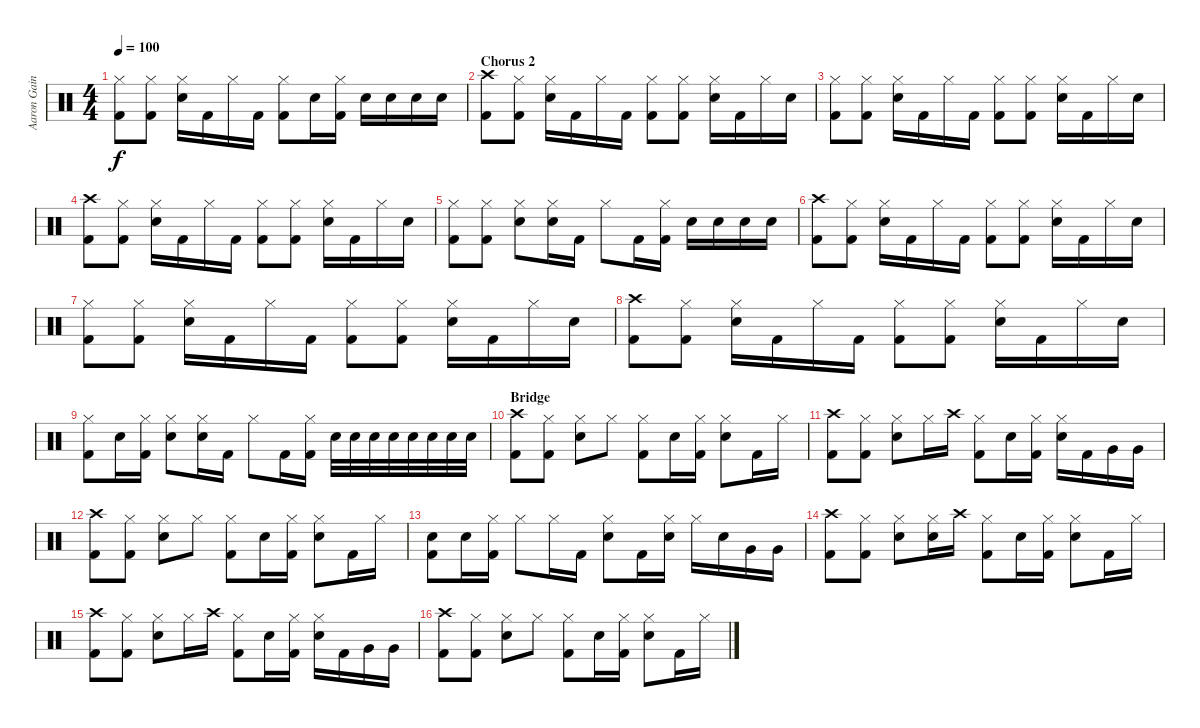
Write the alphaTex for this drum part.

\track ("Aaron Gainer" "Aaron Gain") {instrument percussion}
\staff {score}
\articulation defaults
\ts (4 4)
\tempo 100
\clef neutral
\ks c
("Hi-Hat (closed)" "Kick (hit) 2").8{dy f} ("Hi-Hat (closed)" "Kick (hit) 2").8 ("Hi-Hat (closed)" "Snare (hit) 2").16 "Kick (hit) 2".16 "Hi-Hat (closed)".16 "Kick (hit) 2".16 ("Hi-Hat (closed)" "Kick (hit) 2").8 "Snare (hit) 2".16 ("Hi-Hat (closed)" "Kick (hit) 2").16 "Snare (hit) 2".16 "Snare (hit) 2".16 "Snare (hit) 2".16 "Snare (hit) 2".16 |
\section ("" "Chorus 2")
("Crash high (hit)" "Kick (hit) 2").8 ("Hi-Hat (closed)" "Kick (hit) 2").8 ("Hi-Hat (closed)" "Snare (hit) 2").16 "Kick (hit) 2".16 "Hi-Hat (closed)".16 "Kick (hit) 2".16 ("Hi-Hat (closed)" "Kick (hit) 2").8 ("Hi-Hat (closed)" "Kick (hit) 2").8 ("Hi-Hat (closed)" "Snare (hit) 2").16 "Kick (hit) 2".16 "Hi-Hat (closed)".16 "Snare (hit) 2".16 |
("Hi-Hat (closed)" "Kick (hit) 2").8 ("Hi-Hat (closed)" "Kick (hit) 2").8 ("Hi-Hat (closed)" "Snare (hit) 2").16 "Kick (hit) 2".16 "Hi-Hat (closed)".16 "Kick (hit) 2".16 ("Hi-Hat (closed)" "Kick (hit) 2").8 ("Hi-Hat (closed)" "Kick (hit) 2").8 ("Hi-Hat (closed)" "Snare (hit) 2").16 "Kick (hit) 2".16 "Hi-Hat (closed)".16 "Snare (hit) 2".16 |
("Crash high (hit)" "Kick (hit) 2").8 ("Hi-Hat (closed)" "Kick (hit) 2").8 ("Hi-Hat (closed)" "Snare (hit) 2").16 "Kick (hit) 2".16 "Hi-Hat (closed)".16 "Kick (hit) 2".16 ("Hi-Hat (closed)" "Kick (hit) 2").8 ("Hi-Hat (closed)" "Kick (hit) 2").8 ("Hi-Hat (closed)" "Snare (hit) 2").16 "Kick (hit) 2".16 "Hi-Hat (closed)".16 "Snare (hit) 2".16 |
("Hi-Hat (closed)" "Kick (hit) 2").8 ("Hi-Hat (closed)" "Kick (hit) 2").8 ("Hi-Hat (closed)" "Snare (hit) 2").8 ("Hi-Hat (closed)" "Snare (hit) 2").16 "Kick (hit) 2".16 "Hi-Hat (closed)".8 "Kick (hit) 2".16 ("Hi-Hat (closed)" "Kick (hit) 2").16 "Electric Snare (hit)".16 "Electric Snare (hit)".16 "Electric Snare (hit)".16 "Electric Snare (hit)".16 |
("Crash high (hit)" "Kick (hit) 2").8 ("Hi-Hat (closed)" "Kick (hit) 2").8 ("Hi-Hat (closed)" "Snare (hit) 2").16 "Kick (hit) 2".16 "Hi-Hat (closed)".16 "Kick (hit) 2".16 ("Hi-Hat (closed)" "Kick (hit) 2").8 ("Hi-Hat (closed)" "Kick (hit) 2").8 ("Hi-Hat (closed)" "Snare (hit) 2").16 "Kick (hit) 2".16 "Hi-Hat (closed)".16 "Snare (hit) 2".16 |
("Hi-Hat (closed)" "Kick (hit) 2").8 ("Hi-Hat (closed)" "Kick (hit) 2").8 ("Hi-Hat (closed)" "Snare (hit) 2").16 "Kick (hit) 2".16 "Hi-Hat (closed)".16 "Kick (hit) 2".16 ("Hi-Hat (closed)" "Kick (hit) 2").8 ("Hi-Hat (closed)" "Kick (hit) 2").8 ("Hi-Hat (closed)" "Snare (hit) 2").16 "Kick (hit) 2".16 "Hi-Hat (closed)".16 "Snare (hit) 2".16 |
("Crash high (hit)" "Kick (hit) 2").8 ("Hi-Hat (closed)" "Kick (hit) 2").8 ("Hi-Hat (closed)" "Snare (hit) 2").16 "Kick (hit) 2".16 "Hi-Hat (closed)".16 "Kick (hit) 2".16 ("Hi-Hat (closed)" "Kick (hit) 2").8 ("Hi-Hat (closed)" "Kick (hit) 2").8 ("Hi-Hat (closed)" "Snare (hit) 2").16 "Kick (hit) 2".16 "Hi-Hat (closed)".16 "Snare (hit) 2".16 |
("Hi-Hat (closed)" "Kick (hit) 2").8 "Snare (hit) 2".16 ("Hi-Hat (closed)" "Kick (hit) 2").16 ("Hi-Hat (closed)" "Snare (hit) 2").8 ("Hi-Hat (closed)" "Snare (hit) 2").16 "Kick (hit) 2".16 "Hi-Hat (closed)".8 "Kick (hit) 2".16 ("Hi-Hat (closed)" "Kick (hit) 2").16 "Electric Snare (hit)".32 "Electric Snare (hit)".32 "Electric Snare (hit)".32 "Electric Snare (hit)".32 "Electric Snare (hit)".32 "Electric Snare (hit)".32 "Electric Snare (hit)".32 "Electric Snare (hit)".32 |
\section ("" "Bridge")
("Crash high (hit)" "Kick (hit) 2").8 ("Hi-Hat (closed)" "Kick (hit) 2").8 ("Hi-Hat (closed)" "Snare (hit) 2").8 "Hi-Hat (closed)".8 ("Hi-Hat (closed)" "Kick (hit) 2").8 "Snare (hit) 2".16 ("Hi-Hat (closed)" "Kick (hit) 2").16 ("Hi-Hat (closed)" "Snare (hit) 2").8 "Kick (hit) 2".16 "Hi-Hat (closed)".16 |
("Crash high (hit)" "Kick (hit) 2").8 ("Hi-Hat (closed)" "Kick (hit) 2").8 ("Hi-Hat (closed)" "Snare (hit) 2").8 "Hi-Hat (closed)".16 "Crash high (hit)".16 ("Hi-Hat (closed)" "Kick (hit) 2").8 "Snare (hit) 2".16 ("Hi-Hat (closed)" "Kick (hit) 2").16 ("Hi-Hat (closed)" "Snare (hit) 2").16 "Kick (hit) 2".16 "Very Low Tom (hit)".16 "Very Low Tom (hit)".16 |
("Crash high (hit)" "Kick (hit) 2").8 ("Hi-Hat (closed)" "Kick (hit) 2").8 ("Hi-Hat (closed)" "Snare (hit) 2").8 "Hi-Hat (closed)".8 ("Hi-Hat (closed)" "Kick (hit) 2").8 "Snare (hit) 2".16 ("Hi-Hat (closed)" "Kick (hit) 2").16 ("Hi-Hat (closed)" "Snare (hit) 2").8 "Kick (hit) 2".16 "Hi-Hat (closed)".16 |
("Snare (hit) 2" "Kick (hit) 2").8 "Snare (hit) 2".16 ("Hi-Hat (closed)" "Kick (hit) 2").16 "Hi-Hat (closed)".8 "Hi-Hat (closed)".16 "Kick (hit) 2".16 ("Hi-Hat (closed)" "Snare (hit) 2").8 "Kick (hit) 2".16 ("Hi-Hat (closed)" "Snare (hit) 2").16 "Hi-Hat (closed)".16 "Snare (hit) 2".16 "Very Low Tom (hit)".16 "Very Low Tom (hit)".16 |
("Crash high (hit)" "Kick (hit) 2").8 ("Hi-Hat (closed)" "Kick (hit) 2").8 ("Hi-Hat (closed)" "Snare (hit) 2").8 ("Hi-Hat (closed)" "Snare (hit) 2").16 "Crash high (hit)".16 ("Hi-Hat (closed)" "Kick (hit) 2").8 "Snare (hit) 2".16 ("Hi-Hat (closed)" "Kick (hit) 2").16 ("Hi-Hat (closed)" "Snare (hit) 2").8 "Kick (hit) 2".16 "Hi-Hat (closed)".16 |
("Crash high (hit)" "Kick (hit) 2").8 ("Hi-Hat (closed)" "Kick (hit) 2").8 ("Hi-Hat (closed)" "Snare (hit) 2").8 "Hi-Hat (closed)".16 "Crash high (hit)".16 ("Hi-Hat (closed)" "Kick (hit) 2").8 "Snare (hit) 2".16 ("Hi-Hat (closed)" "Kick (hit) 2").16 ("Hi-Hat (closed)" "Snare (hit) 2").16 "Kick (hit) 2".16 "Very Low Tom (hit)".16 "Very Low Tom (hit)".16 |
("Crash high (hit)" "Kick (hit) 2").8 ("Hi-Hat (closed)" "Kick (hit) 2").8 ("Hi-Hat (closed)" "Snare (hit) 2").8 "Hi-Hat (closed)".8 ("Hi-Hat (closed)" "Kick (hit) 2").8 "Snare (hit) 2".16 ("Hi-Hat (closed)" "Kick (hit) 2").16 ("Hi-Hat (closed)" "Snare (hit) 2").8 "Kick (hit) 2".16 "Hi-Hat (closed)".16
